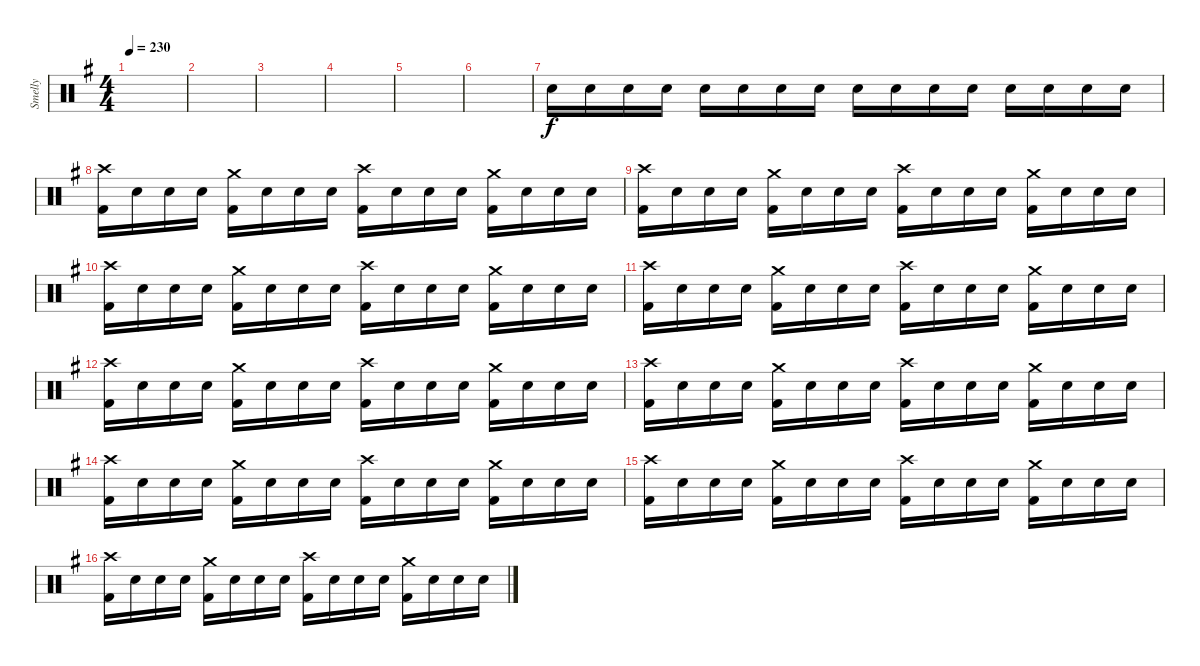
\track ("Smelly" "Smelly") {instrument percussion}
\staff {score}
\articulation defaults
\ts (4 4)
\tempo 230
\clef neutral
\ks eminor
|
|
|
|
|
|
"Electric Snare (hit)".16{dy f} "Electric Snare (hit)".16 "Electric Snare (hit)".16 "Electric Snare (hit)".16 "Electric Snare (hit)".16 "Electric Snare (hit)".16 "Electric Snare (hit)".16 "Electric Snare (hit)".16 "Electric Snare (hit)".16 "Electric Snare (hit)".16 "Electric Snare (hit)".16 "Electric Snare (hit)".16 "Electric Snare (hit)".16 "Electric Snare (hit)".16 "Electric Snare (hit)".16 "Electric Snare (hit)".16 |
("Crash high (hit)" "Kick (hit) 2").16 "Electric Snare (hit)".16 "Electric Snare (hit)".16 "Electric Snare (hit)".16 ("Crash medium (hit)" "Kick (hit) 2").16 "Electric Snare (hit)".16 "Electric Snare (hit)".16 "Electric Snare (hit)".16 ("Crash high (hit)" "Kick (hit) 2").16 "Electric Snare (hit)".16 "Electric Snare (hit)".16 "Electric Snare (hit)".16 ("Crash medium (hit)" "Kick (hit) 2").16 "Electric Snare (hit)".16 "Electric Snare (hit)".16 "Electric Snare (hit)".16 |
("Crash high (hit)" "Kick (hit) 2").16 "Electric Snare (hit)".16 "Electric Snare (hit)".16 "Electric Snare (hit)".16 ("Crash medium (hit)" "Kick (hit) 2").16 "Electric Snare (hit)".16 "Electric Snare (hit)".16 "Electric Snare (hit)".16 ("Crash high (hit)" "Kick (hit) 2").16 "Electric Snare (hit)".16 "Electric Snare (hit)".16 "Electric Snare (hit)".16 ("Crash medium (hit)" "Kick (hit) 2").16 "Electric Snare (hit)".16 "Electric Snare (hit)".16 "Electric Snare (hit)".16 |
("Crash high (hit)" "Kick (hit) 2").16 "Electric Snare (hit)".16 "Electric Snare (hit)".16 "Electric Snare (hit)".16 ("Crash medium (hit)" "Kick (hit) 2").16 "Electric Snare (hit)".16 "Electric Snare (hit)".16 "Electric Snare (hit)".16 ("Crash high (hit)" "Kick (hit) 2").16 "Electric Snare (hit)".16 "Electric Snare (hit)".16 "Electric Snare (hit)".16 ("Crash medium (hit)" "Kick (hit) 2").16 "Electric Snare (hit)".16 "Electric Snare (hit)".16 "Electric Snare (hit)".16 |
("Crash high (hit)" "Kick (hit) 2").16 "Electric Snare (hit)".16 "Electric Snare (hit)".16 "Electric Snare (hit)".16 ("Crash medium (hit)" "Kick (hit) 2").16 "Electric Snare (hit)".16 "Electric Snare (hit)".16 "Electric Snare (hit)".16 ("Crash high (hit)" "Kick (hit) 2").16 "Electric Snare (hit)".16 "Electric Snare (hit)".16 "Electric Snare (hit)".16 ("Crash medium (hit)" "Kick (hit) 2").16 "Electric Snare (hit)".16 "Electric Snare (hit)".16 "Electric Snare (hit)".16 |
("Crash high (hit)" "Kick (hit) 2").16 "Electric Snare (hit)".16 "Electric Snare (hit)".16 "Electric Snare (hit)".16 ("Crash medium (hit)" "Kick (hit) 2").16 "Electric Snare (hit)".16 "Electric Snare (hit)".16 "Electric Snare (hit)".16 ("Crash high (hit)" "Kick (hit) 2").16 "Electric Snare (hit)".16 "Electric Snare (hit)".16 "Electric Snare (hit)".16 ("Crash medium (hit)" "Kick (hit) 2").16 "Electric Snare (hit)".16 "Electric Snare (hit)".16 "Electric Snare (hit)".16 |
("Crash high (hit)" "Kick (hit) 2").16 "Electric Snare (hit)".16 "Electric Snare (hit)".16 "Electric Snare (hit)".16 ("Crash medium (hit)" "Kick (hit) 2").16 "Electric Snare (hit)".16 "Electric Snare (hit)".16 "Electric Snare (hit)".16 ("Crash high (hit)" "Kick (hit) 2").16 "Electric Snare (hit)".16 "Electric Snare (hit)".16 "Electric Snare (hit)".16 ("Crash medium (hit)" "Kick (hit) 2").16 "Electric Snare (hit)".16 "Electric Snare (hit)".16 "Electric Snare (hit)".16 |
("Crash high (hit)" "Kick (hit) 2").16 "Electric Snare (hit)".16 "Electric Snare (hit)".16 "Electric Snare (hit)".16 ("Crash medium (hit)" "Kick (hit) 2").16 "Electric Snare (hit)".16 "Electric Snare (hit)".16 "Electric Snare (hit)".16 ("Crash high (hit)" "Kick (hit) 2").16 "Electric Snare (hit)".16 "Electric Snare (hit)".16 "Electric Snare (hit)".16 ("Crash medium (hit)" "Kick (hit) 2").16 "Electric Snare (hit)".16 "Electric Snare (hit)".16 "Electric Snare (hit)".16 |
("Crash high (hit)" "Kick (hit) 2").16 "Electric Snare (hit)".16 "Electric Snare (hit)".16 "Electric Snare (hit)".16 ("Crash medium (hit)" "Kick (hit) 2").16 "Electric Snare (hit)".16 "Electric Snare (hit)".16 "Electric Snare (hit)".16 ("Crash high (hit)" "Kick (hit) 2").16 "Electric Snare (hit)".16 "Electric Snare (hit)".16 "Electric Snare (hit)".16 ("Crash medium (hit)" "Kick (hit) 2").16 "Electric Snare (hit)".16 "Electric Snare (hit)".16 "Electric Snare (hit)".16 |
("Crash high (hit)" "Kick (hit) 2").16 "Electric Snare (hit)".16 "Electric Snare (hit)".16 "Electric Snare (hit)".16 ("Crash medium (hit)" "Kick (hit) 2").16 "Electric Snare (hit)".16 "Electric Snare (hit)".16 "Electric Snare (hit)".16 ("Crash high (hit)" "Kick (hit) 2").16 "Electric Snare (hit)".16 "Electric Snare (hit)".16 "Electric Snare (hit)".16 ("Crash medium (hit)" "Kick (hit) 2").16 "Electric Snare (hit)".16 "Electric Snare (hit)".16 "Electric Snare (hit)".16
